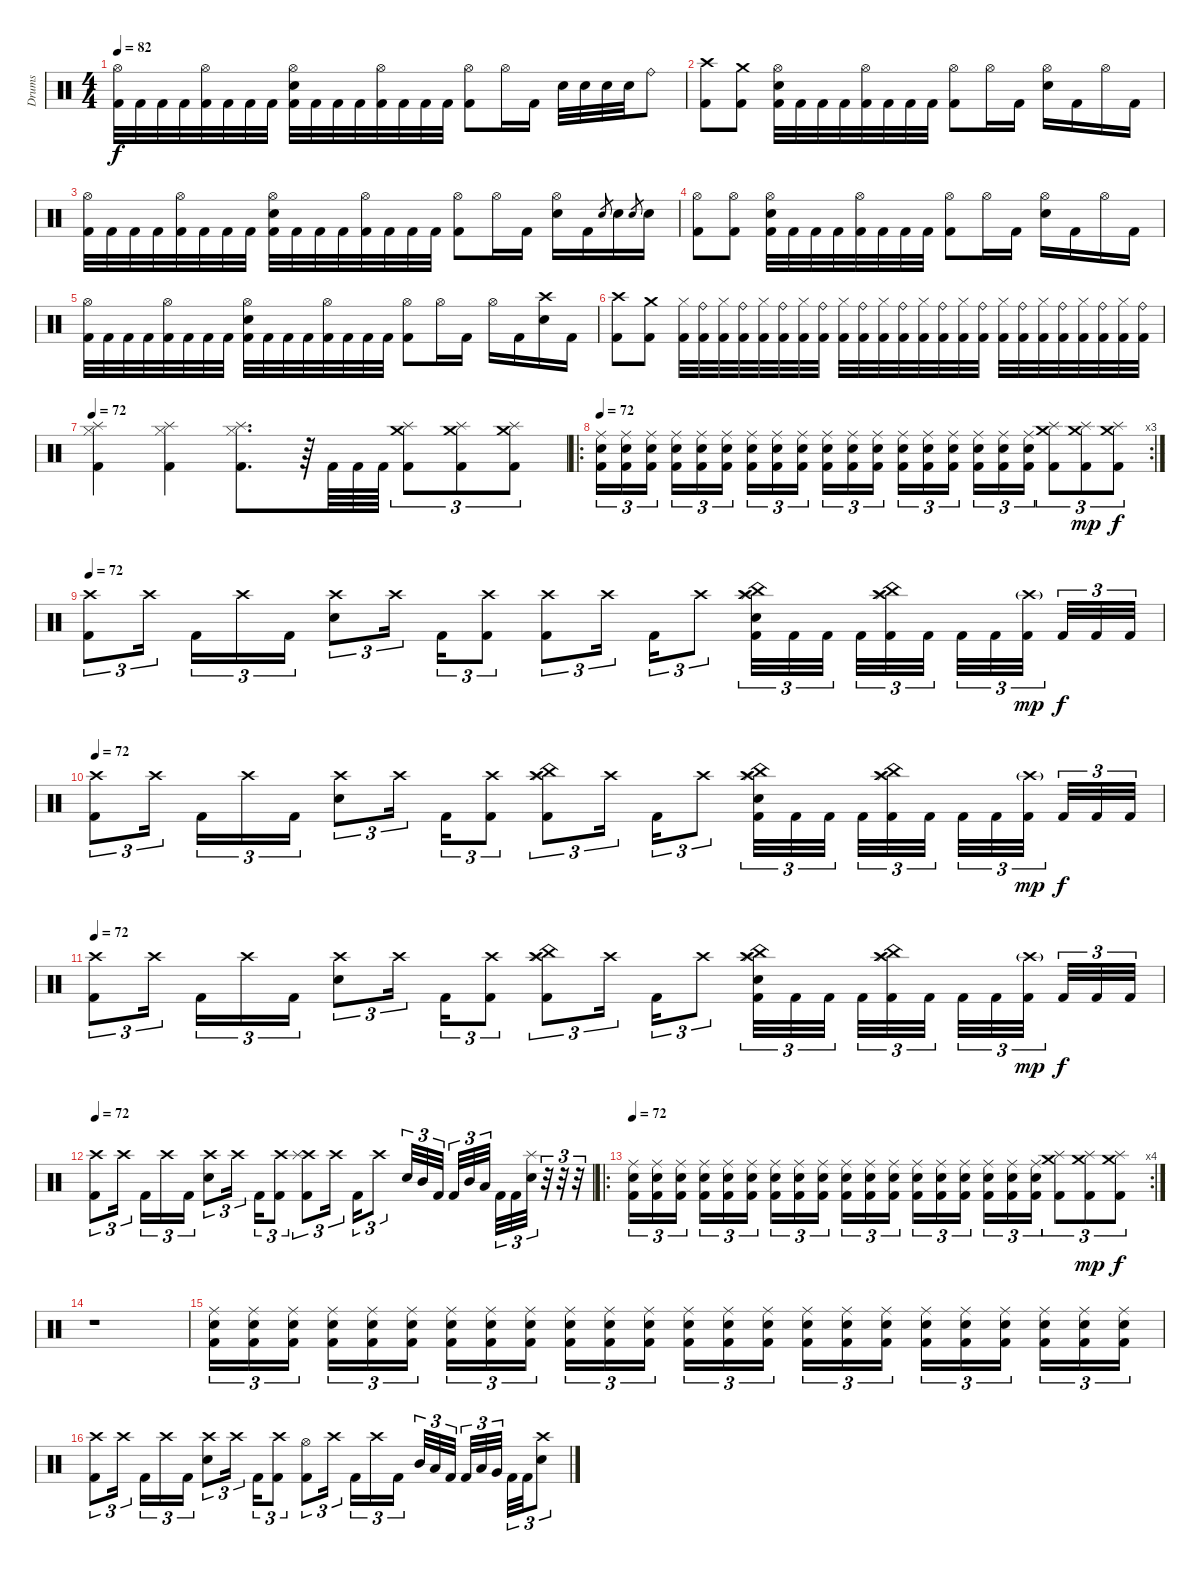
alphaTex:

\track ("Drums" "Drums") {instrument percussion}
\staff {score}
\articulation defaults
\ts (4 4)
\tempo 82
\clef neutral
\ks c
("Hi-Hat (open)" "Kick (hit) 2").32{dy f} "Kick (hit) 2".32 "Kick (hit) 2".32 "Kick (hit) 2".32 ("Hi-Hat (open)" "Kick (hit) 2").32 "Kick (hit) 2".32 "Kick (hit) 2".32 "Kick (hit) 2".32 ("Electric Snare (hit)" "Hi-Hat (open)" "Kick (hit) 2").32 "Kick (hit) 2".32 "Kick (hit) 2".32 "Kick (hit) 2".32 ("Hi-Hat (open)" "Kick (hit) 2").32 "Kick (hit) 2".32 "Kick (hit) 2".32 "Kick (hit) 2".32 ("Hi-Hat (open)" "Kick (hit) 2").8 "Hi-Hat (open)".16 "Kick (hit) 2".16 "Electric Snare (hit)".32 "Electric Snare (hit)".32 "Electric Snare (hit)".32 "Electric Snare (hit)".32 "Ride (bell)".8 |
("Crash high (hit)" "Kick (hit) 2").8 ("Crash medium (hit)" "Kick (hit) 2").8 ("Hi-Hat (open)" "Electric Snare (hit)" "Kick (hit) 2").32 "Kick (hit) 2".32 "Kick (hit) 2".32 "Kick (hit) 2".32 ("Hi-Hat (open)" "Kick (hit) 2").32 "Kick (hit) 2".32 "Kick (hit) 2".32 "Kick (hit) 2".32 ("Hi-Hat (open)" "Kick (hit) 2").8 "Hi-Hat (open)".16 "Kick (hit) 2".16 ("Hi-Hat (open)" "Electric Snare (hit)").16 "Kick (hit) 2".16 "Hi-Hat (open)".16 "Kick (hit) 2".16 |
("Hi-Hat (open)" "Kick (hit) 2").32 "Kick (hit) 2".32 "Kick (hit) 2".32 "Kick (hit) 2".32 ("Hi-Hat (open)" "Kick (hit) 2").32 "Kick (hit) 2".32 "Kick (hit) 2".32 "Kick (hit) 2".32 ("Electric Snare (hit)" "Hi-Hat (open)" "Kick (hit) 2").32 "Kick (hit) 2".32 "Kick (hit) 2".32 "Kick (hit) 2".32 ("Hi-Hat (open)" "Kick (hit) 2").32 "Kick (hit) 2".32 "Kick (hit) 2".32 "Kick (hit) 2".32 ("Hi-Hat (open)" "Kick (hit) 2").8 "Hi-Hat (open)".16 "Kick (hit) 2".16 ("Hi-Hat (open)" "Electric Snare (hit)").16 "Kick (hit) 2".16 "Electric Snare (hit)".8{gr} "Electric Snare (hit)".16 "Electric Snare (hit)".8{gr} "Electric Snare (hit)".16 |
("Hi-Hat (open)" "Kick (hit) 2").8 ("Hi-Hat (open)" "Kick (hit) 2").8 ("Hi-Hat (open)" "Electric Snare (hit)" "Kick (hit) 2").32 "Kick (hit) 2".32 "Kick (hit) 2".32 "Kick (hit) 2".32 ("Hi-Hat (open)" "Kick (hit) 2").32 "Kick (hit) 2".32 "Kick (hit) 2".32 "Kick (hit) 2".32 ("Hi-Hat (open)" "Kick (hit) 2").8 "Hi-Hat (open)".16 "Kick (hit) 2".16 ("Hi-Hat (open)" "Electric Snare (hit)").16 "Kick (hit) 2".16 "Hi-Hat (open)".16 "Kick (hit) 2".16 |
("Hi-Hat (open)" "Kick (hit) 2").32 "Kick (hit) 2".32 "Kick (hit) 2".32 "Kick (hit) 2".32 ("Hi-Hat (open)" "Kick (hit) 2").32 "Kick (hit) 2".32 "Kick (hit) 2".32 "Kick (hit) 2".32 ("Electric Snare (hit)" "Hi-Hat (open)" "Kick (hit) 2").32 "Kick (hit) 2".32 "Kick (hit) 2".32 "Kick (hit) 2".32 ("Hi-Hat (open)" "Kick (hit) 2").32 "Kick (hit) 2".32 "Kick (hit) 2".32 "Kick (hit) 2".32 ("Hi-Hat (open)" "Kick (hit) 2").8 "Hi-Hat (open)".16 "Kick (hit) 2".16 "Hi-Hat (open)".16 "Kick (hit) 2".16 ("Crash high (hit)" "Electric Snare (hit)").16 "Kick (hit) 2".16 |
("Crash high (hit)" "Kick (hit) 2").8 ("Crash medium (hit)" "Kick (hit) 2").8 ("Hi-Hat (closed)" "Kick (hit) 2").32 ("Ride (bell)" "Kick (hit) 2").32 ("Hi-Hat (closed)" "Kick (hit) 2").32 ("Ride (bell)" "Kick (hit) 2").32 ("Hi-Hat (closed)" "Kick (hit) 2").32 ("Ride (bell)" "Kick (hit) 2").32 ("Hi-Hat (closed)" "Kick (hit) 2").32 ("Ride (bell)" "Kick (hit) 2").32 ("Hi-Hat (closed)" "Kick (hit) 2").32 ("Ride (bell)" "Kick (hit) 2").32 ("Hi-Hat (closed)" "Kick (hit) 2").32 ("Ride (bell)" "Kick (hit) 2").32 ("Hi-Hat (closed)" "Kick (hit) 2").32 ("Ride (bell)" "Kick (hit) 2").32 ("Hi-Hat (closed)" "Kick (hit) 2").32 ("Ride (bell)" "Kick (hit) 2").32 ("Hi-Hat (closed)" "Kick (hit) 2").32 ("Ride (bell)" "Kick (hit) 2").32 ("Hi-Hat (closed)" "Kick (hit) 2").32 ("Ride (bell)" "Kick (hit) 2").32 ("Hi-Hat (closed)" "Kick (hit) 2").32 ("Ride (bell)" "Kick (hit) 2").32 ("Hi-Hat (closed)" "Kick (hit) 2").32 ("Ride (bell)" "Kick (hit) 2").32 |
\tempo 72
("Splash (hit)" "Hi-Hat (closed)" "Kick (hit) 2").4 ("Splash (hit)" "Hi-Hat (closed)" "Kick (hit) 2").4 ("Splash (hit)" "Hi-Hat (closed)" "Kick (hit) 2").8{d} r.64 "Kick (hit) 2".64 "Kick (hit) 2".64 "Kick (hit) 2".64 ("Crash medium (hit)" "Splash (hit)" "Kick (hit) 2").8{tu (3 2)} ("Crash medium (hit)" "Splash (hit)" "Kick (hit) 2").8{tu (3 2)} ("Crash medium (hit)" "Splash (hit)" "Kick (hit) 2").8{tu (3 2)} |
\ro
\rc 3
\tempo 72
("Kick (hit) 2" "Ride (middle)" "Electric Snare (hit)").16{tu (3 2)} ("Kick (hit) 2" "Ride (middle)" "Electric Snare (hit)").16{tu (3 2)} ("Kick (hit) 2" "Ride (middle)" "Electric Snare (hit)").16{tu (3 2) beam splitsecondary} ("Kick (hit) 2" "Ride (middle)" "Electric Snare (hit)").16{tu (3 2)} ("Kick (hit) 2" "Ride (middle)" "Electric Snare (hit)").16{tu (3 2)} ("Kick (hit) 2" "Ride (middle)" "Electric Snare (hit)").16{tu (3 2)} ("Kick (hit) 2" "Ride (middle)" "Electric Snare (hit)").16{tu (3 2)} ("Kick (hit) 2" "Ride (middle)" "Electric Snare (hit)").16{tu (3 2)} ("Kick (hit) 2" "Ride (middle)" "Electric Snare (hit)").16{tu (3 2) beam splitsecondary} ("Kick (hit) 2" "Ride (middle)" "Electric Snare (hit)").16{tu (3 2)} ("Kick (hit) 2" "Ride (middle)" "Electric Snare (hit)").16{tu (3 2)} ("Kick (hit) 2" "Ride (middle)" "Electric Snare (hit)").16{tu (3 2)} ("Kick (hit) 2" "Ride (middle)" "Electric Snare (hit)").16{tu (3 2)} ("Kick (hit) 2" "Ride (middle)" "Electric Snare (hit)").16{tu (3 2)} ("Kick (hit) 2" "Ride (middle)" "Electric Snare (hit)").16{tu (3 2) beam splitsecondary} ("Kick (hit) 2" "Ride (middle)" "Electric Snare (hit)").16{tu (3 2)} ("Kick (hit) 2" "Ride (middle)" "Electric Snare (hit)").16{tu (3 2)} ("Kick (hit) 2" "Ride (middle)" "Electric Snare (hit)").16{tu (3 2)} ("Splash (hit)" "Crash medium (hit)" "Kick (hit) 2").8{tu (3 2)} ("Splash (hit)" "Crash medium (hit)" "Kick (hit) 2").8{tu (3 2) dy mp} ("Splash (hit)" "Crash medium (hit)" "Kick (hit) 2").8{tu (3 2) dy f} |
\tempo 72
("Crash high (hit)" "Kick (hit) 2").8{tu (3 2)} "Crash high (hit)".16{tu (3 2) beam splitsecondary} "Kick (hit) 2".16{tu (3 2)} "Crash high (hit)".16{tu (3 2)} "Kick (hit) 2".16{tu (3 2)} ("Crash high (hit)" "Electric Snare (hit)").8{tu (3 2)} "Crash high (hit)".16{tu (3 2) beam splitsecondary} "Kick (hit) 2".16{tu (3 2)} ("Crash high (hit)" "Kick (hit) 2").8{tu (3 2)} ("Crash high (hit)" "Kick (hit) 2").8{tu (3 2)} "Crash high (hit)".16{tu (3 2) beam splitsecondary} "Kick (hit) 2".16{tu (3 2)} "Crash high (hit)".8{tu (3 2)} ("China (hit)" "Crash high (hit)" "Splash (hit)" "Electric Snare (hit)" "Kick (hit) 2").32{tu (3 2)} "Kick (hit) 2".32{tu (3 2)} "Kick (hit) 2".32{tu (3 2) beam splitsecondary} "Kick (hit) 2".32{tu (3 2)} ("China (hit)" "Crash high (hit)" "Splash (hit)" "Kick (hit) 2").32{tu (3 2)} "Kick (hit) 2".32{tu (3 2) beam splitsecondary} "Kick (hit) 2".32{tu (3 2)} "Kick (hit) 2".32{tu (3 2)} ("Crash high (hit)"{g} "Kick (hit) 2").32{tu (3 2) dy mp beam splitsecondary} "Kick (hit) 2".32{tu (3 2) dy f} "Kick (hit) 2".32{tu (3 2)} "Kick (hit) 2".32{tu (3 2)} |
\tempo 72
("Crash high (hit)" "Kick (hit) 2").8{tu (3 2)} "Crash high (hit)".16{tu (3 2) beam splitsecondary} "Kick (hit) 2".16{tu (3 2)} "Crash high (hit)".16{tu (3 2)} "Kick (hit) 2".16{tu (3 2)} ("Crash high (hit)" "Electric Snare (hit)").8{tu (3 2)} "Crash high (hit)".16{tu (3 2) beam splitsecondary} "Kick (hit) 2".16{tu (3 2)} ("Crash high (hit)" "Kick (hit) 2").8{tu (3 2)} ("China (hit)" "Crash high (hit)" "Splash (hit)" "Kick (hit) 2").8{tu (3 2)} "Crash high (hit)".16{tu (3 2) beam splitsecondary} "Kick (hit) 2".16{tu (3 2)} "Crash high (hit)".8{tu (3 2)} ("China (hit)" "Crash high (hit)" "Splash (hit)" "Electric Snare (hit)" "Kick (hit) 2").32{tu (3 2)} "Kick (hit) 2".32{tu (3 2)} "Kick (hit) 2".32{tu (3 2) beam splitsecondary} "Kick (hit) 2".32{tu (3 2)} ("China (hit)" "Crash high (hit)" "Splash (hit)" "Kick (hit) 2").32{tu (3 2)} "Kick (hit) 2".32{tu (3 2) beam splitsecondary} "Kick (hit) 2".32{tu (3 2)} "Kick (hit) 2".32{tu (3 2)} ("Crash high (hit)"{g} "Kick (hit) 2").32{tu (3 2) dy mp beam splitsecondary} "Kick (hit) 2".32{tu (3 2) dy f} "Kick (hit) 2".32{tu (3 2)} "Kick (hit) 2".32{tu (3 2)} |
\tempo 72
("Crash high (hit)" "Kick (hit) 2").8{tu (3 2)} "Crash high (hit)".16{tu (3 2) beam splitsecondary} "Kick (hit) 2".16{tu (3 2)} "Crash high (hit)".16{tu (3 2)} "Kick (hit) 2".16{tu (3 2)} ("Crash high (hit)" "Electric Snare (hit)").8{tu (3 2)} "Crash high (hit)".16{tu (3 2) beam splitsecondary} "Kick (hit) 2".16{tu (3 2)} ("Crash high (hit)" "Kick (hit) 2").8{tu (3 2)} ("China (hit)" "Crash high (hit)" "Splash (hit)" "Kick (hit) 2").8{tu (3 2)} "Crash high (hit)".16{tu (3 2) beam splitsecondary} "Kick (hit) 2".16{tu (3 2)} "Crash high (hit)".8{tu (3 2)} ("China (hit)" "Crash high (hit)" "Splash (hit)" "Electric Snare (hit)" "Kick (hit) 2").32{tu (3 2)} "Kick (hit) 2".32{tu (3 2)} "Kick (hit) 2".32{tu (3 2) beam splitsecondary} "Kick (hit) 2".32{tu (3 2)} ("China (hit)" "Crash high (hit)" "Splash (hit)" "Kick (hit) 2").32{tu (3 2)} "Kick (hit) 2".32{tu (3 2) beam splitsecondary} "Kick (hit) 2".32{tu (3 2)} "Kick (hit) 2".32{tu (3 2)} ("Crash high (hit)"{g} "Kick (hit) 2").32{tu (3 2) dy mp beam splitsecondary} "Kick (hit) 2".32{tu (3 2) dy f} "Kick (hit) 2".32{tu (3 2)} "Kick (hit) 2".32{tu (3 2)} |
\tempo 72
("Crash high (hit)" "Kick (hit) 2").8{tu (3 2)} "Crash high (hit)".16{tu (3 2) beam splitsecondary} "Kick (hit) 2".16{tu (3 2)} "Crash high (hit)".16{tu (3 2)} "Kick (hit) 2".16{tu (3 2)} ("Crash high (hit)" "Electric Snare (hit)").8{tu (3 2)} "Crash high (hit)".16{tu (3 2) beam splitsecondary} "Kick (hit) 2".16{tu (3 2)} ("Crash high (hit)" "Kick (hit) 2").8{tu (3 2)} ("Crash high (hit)" "Splash (hit)" "Kick (hit) 2").8{tu (3 2)} "Crash high (hit)".16{tu (3 2) beam splitsecondary} "Kick (hit) 2".16{tu (3 2)} "Crash high (hit)".8{tu (3 2)} "Electric Snare (hit)".32{tu (3 2)} "Mid Tom (hit)".32{tu (3 2)} "Kick (hit) 2".32{tu (3 2) beam splitsecondary} "Kick (hit) 2".32{tu (3 2)} "Mid Tom (hit)".32{tu (3 2)} "Low Tom (hit)".32{tu (3 2) beam splitsecondary} "Kick (hit) 2".32{tu (3 2)} "Kick (hit) 2".32{tu (3 2)} ("Splash (hit)" "Electric Snare (hit)").32{tu (3 2)} r.32{tu (3 2)} r.32{tu (3 2)} r.32{tu (3 2)} |
\ro
\rc 4
\tempo 72
("Kick (hit) 2" "Ride (middle)" "Electric Snare (hit)").16{tu (3 2)} ("Kick (hit) 2" "Ride (middle)" "Electric Snare (hit)").16{tu (3 2)} ("Kick (hit) 2" "Ride (middle)" "Electric Snare (hit)").16{tu (3 2) beam splitsecondary} ("Kick (hit) 2" "Ride (middle)" "Electric Snare (hit)").16{tu (3 2)} ("Kick (hit) 2" "Ride (middle)" "Electric Snare (hit)").16{tu (3 2)} ("Kick (hit) 2" "Ride (middle)" "Electric Snare (hit)").16{tu (3 2)} ("Kick (hit) 2" "Ride (middle)" "Electric Snare (hit)").16{tu (3 2)} ("Kick (hit) 2" "Ride (middle)" "Electric Snare (hit)").16{tu (3 2)} ("Kick (hit) 2" "Ride (middle)" "Electric Snare (hit)").16{tu (3 2) beam splitsecondary} ("Kick (hit) 2" "Ride (middle)" "Electric Snare (hit)").16{tu (3 2)} ("Kick (hit) 2" "Ride (middle)" "Electric Snare (hit)").16{tu (3 2)} ("Kick (hit) 2" "Ride (middle)" "Electric Snare (hit)").16{tu (3 2)} ("Kick (hit) 2" "Ride (middle)" "Electric Snare (hit)").16{tu (3 2)} ("Kick (hit) 2" "Ride (middle)" "Electric Snare (hit)").16{tu (3 2)} ("Kick (hit) 2" "Ride (middle)" "Electric Snare (hit)").16{tu (3 2) beam splitsecondary} ("Kick (hit) 2" "Ride (middle)" "Electric Snare (hit)").16{tu (3 2)} ("Kick (hit) 2" "Ride (middle)" "Electric Snare (hit)").16{tu (3 2)} ("Kick (hit) 2" "Ride (middle)" "Electric Snare (hit)").16{tu (3 2)} ("Splash (hit)" "Crash medium (hit)" "Kick (hit) 2").8{tu (3 2)} ("Splash (hit)" "Crash medium (hit)" "Kick (hit) 2").8{tu (3 2) dy mp} ("Splash (hit)" "Crash medium (hit)" "Kick (hit) 2").8{tu (3 2) dy f} |
r.1 |
("Kick (hit) 2" "Ride (middle)" "Electric Snare (hit)").16{tu (3 2)} ("Kick (hit) 2" "Ride (middle)" "Electric Snare (hit)").16{tu (3 2)} ("Kick (hit) 2" "Ride (middle)" "Electric Snare (hit)").16{tu (3 2) beam splitsecondary} ("Kick (hit) 2" "Ride (middle)" "Electric Snare (hit)").16{tu (3 2)} ("Kick (hit) 2" "Ride (middle)" "Electric Snare (hit)").16{tu (3 2)} ("Kick (hit) 2" "Ride (middle)" "Electric Snare (hit)").16{tu (3 2)} ("Kick (hit) 2" "Ride (middle)" "Electric Snare (hit)").16{tu (3 2)} ("Kick (hit) 2" "Ride (middle)" "Electric Snare (hit)").16{tu (3 2)} ("Kick (hit) 2" "Ride (middle)" "Electric Snare (hit)").16{tu (3 2) beam splitsecondary} ("Kick (hit) 2" "Ride (middle)" "Electric Snare (hit)").16{tu (3 2)} ("Kick (hit) 2" "Ride (middle)" "Electric Snare (hit)").16{tu (3 2)} ("Kick (hit) 2" "Ride (middle)" "Electric Snare (hit)").16{tu (3 2)} ("Kick (hit) 2" "Ride (middle)" "Electric Snare (hit)").16{tu (3 2)} ("Kick (hit) 2" "Ride (middle)" "Electric Snare (hit)").16{tu (3 2)} ("Kick (hit) 2" "Ride (middle)" "Electric Snare (hit)").16{tu (3 2) beam splitsecondary} ("Kick (hit) 2" "Ride (middle)" "Electric Snare (hit)").16{tu (3 2)} ("Kick (hit) 2" "Ride (middle)" "Electric Snare (hit)").16{tu (3 2)} ("Kick (hit) 2" "Ride (middle)" "Electric Snare (hit)").16{tu (3 2)} ("Electric Snare (hit)" "Ride (middle)" "Kick (hit) 2").16{tu (3 2)} ("Electric Snare (hit)" "Ride (middle)" "Kick (hit) 2").16{tu (3 2)} ("Electric Snare (hit)" "Ride (middle)" "Kick (hit) 2").16{tu (3 2) beam splitsecondary} ("Electric Snare (hit)" "Ride (middle)" "Kick (hit) 2").16{tu (3 2)} ("Electric Snare (hit)" "Ride (middle)" "Kick (hit) 2").16{tu (3 2)} ("Electric Snare (hit)" "Ride (middle)" "Kick (hit) 2").16{tu (3 2)} |
("Kick (hit) 2" "Crash high (hit)").8{tu (3 2)} "Crash high (hit)".16{tu (3 2) beam splitsecondary} "Kick (hit) 2".16{tu (3 2)} "Crash high (hit)".16{tu (3 2)} "Kick (hit) 2".16{tu (3 2)} ("Crash high (hit)" "Electric Snare (hit)").8{tu (3 2)} "Crash high (hit)".16{tu (3 2) beam splitsecondary} "Kick (hit) 2".16{tu (3 2)} ("Crash high (hit)" "Kick (hit) 2").8{tu (3 2)} ("Hi-Hat (open)" "Kick (hit) 2").8{tu (3 2)} "Crash high (hit)".16{tu (3 2) beam splitsecondary} "Kick (hit) 2".16{tu (3 2)} "Crash high (hit)".16{tu (3 2)} "Kick (hit) 2".16{tu (3 2)} "Mid Tom (hit)".32{tu (3 2)} "Low Tom (hit)".32{tu (3 2)} "Kick (hit) 2".32{tu (3 2) beam splitsecondary} "Kick (hit) 2".32{tu (3 2)} "Low Tom (hit)".32{tu (3 2)} "Very Low Tom (hit)".32{tu (3 2) beam splitsecondary} "Kick (hit) 2".32{tu (3 2)} "Kick (hit) 2".32{tu (3 2)} ("Crash high (hit)" "Electric Snare (hit)").8{tu (3 2)}
